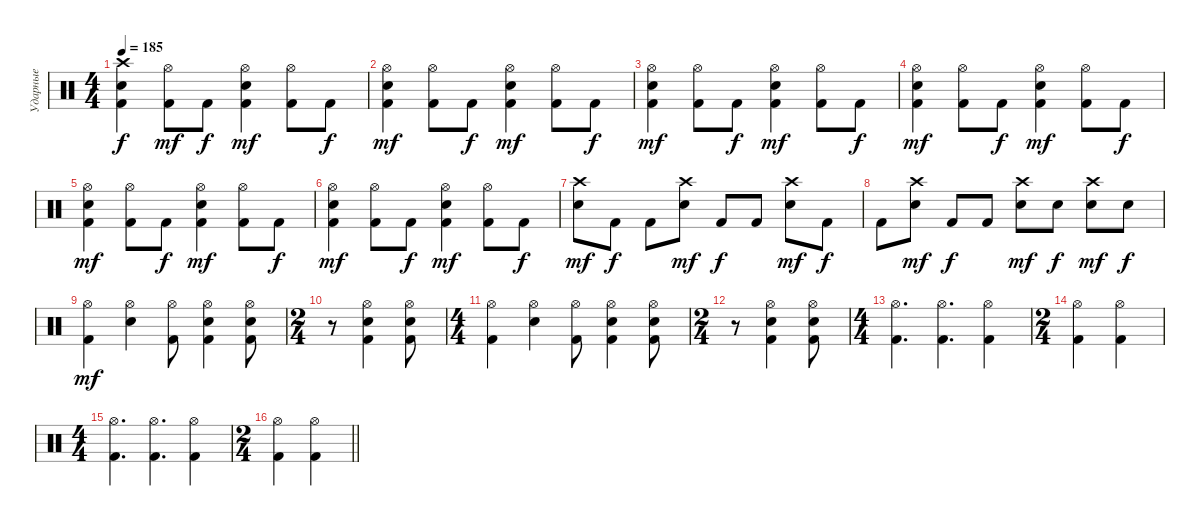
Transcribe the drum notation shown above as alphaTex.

\track ("Ударные" "Ударные") {instrument percussion}
\staff {score}
\articulation defaults
\ts (4 4)
\tempo 185
\clef neutral
\ks c
("Kick (hit) 2" "Electric Snare (hit)" "Crash high (hit)").4{dy f} ("Kick (hit) 2" "Hi-Hat (open)").8{dy mf} "Kick (hit) 2".8{dy f} ("Kick (hit) 2" "Electric Snare (hit)" "Hi-Hat (open)").4{dy mf} ("Kick (hit) 2" "Hi-Hat (open)").8 "Kick (hit) 2".8{dy f} |
("Kick (hit) 2" "Electric Snare (hit)" "Hi-Hat (open)").4{dy mf} ("Kick (hit) 2" "Hi-Hat (open)").8 "Kick (hit) 2".8{dy f} ("Kick (hit) 2" "Electric Snare (hit)" "Hi-Hat (open)").4{dy mf} ("Kick (hit) 2" "Hi-Hat (open)").8 "Kick (hit) 2".8{dy f} |
("Kick (hit) 2" "Electric Snare (hit)" "Hi-Hat (open)").4{dy mf} ("Kick (hit) 2" "Hi-Hat (open)").8 "Kick (hit) 2".8{dy f} ("Kick (hit) 2" "Electric Snare (hit)" "Hi-Hat (open)").4{dy mf} ("Kick (hit) 2" "Hi-Hat (open)").8 "Kick (hit) 2".8{dy f} |
("Kick (hit) 2" "Electric Snare (hit)" "Hi-Hat (open)").4{dy mf} ("Kick (hit) 2" "Hi-Hat (open)").8 "Kick (hit) 2".8{dy f} ("Kick (hit) 2" "Electric Snare (hit)" "Hi-Hat (open)").4{dy mf} ("Kick (hit) 2" "Hi-Hat (open)").8 "Kick (hit) 2".8{dy f} |
("Kick (hit) 2" "Electric Snare (hit)" "Hi-Hat (open)").4{dy mf} ("Kick (hit) 2" "Hi-Hat (open)").8 "Kick (hit) 2".8{dy f} ("Kick (hit) 2" "Electric Snare (hit)" "Hi-Hat (open)").4{dy mf} ("Kick (hit) 2" "Hi-Hat (open)").8 "Kick (hit) 2".8{dy f} |
("Kick (hit) 2" "Electric Snare (hit)" "Hi-Hat (open)").4{dy mf} ("Kick (hit) 2" "Hi-Hat (open)").8 "Kick (hit) 2".8{dy f} ("Kick (hit) 2" "Electric Snare (hit)" "Hi-Hat (open)").4{dy mf} ("Kick (hit) 2" "Hi-Hat (open)").8 "Kick (hit) 2".8{dy f} |
("Electric Snare (hit)" "Crash high (hit)").8{dy mf} "Kick (hit) 2".8{dy f} "Kick (hit) 2".8 ("Electric Snare (hit)" "Crash high (hit)").8{dy mf} "Kick (hit) 2".8{dy f} "Kick (hit) 2".8 ("Electric Snare (hit)" "Crash high (hit)").8{dy mf} "Kick (hit) 2".8{dy f} |
"Kick (hit) 2".8 ("Electric Snare (hit)" "Crash high (hit)").8{dy mf} "Kick (hit) 2".8{dy f} "Kick (hit) 2".8 ("Electric Snare (hit)" "Crash high (hit)").8{dy mf} "Electric Snare (hit)".8{dy f} ("Electric Snare (hit)" "Crash high (hit)").8{dy mf} "Electric Snare (hit)".8{dy f} |
("Kick (hit) 2" "Hi-Hat (open)").4{dy mf} ("Electric Snare (hit)" "Hi-Hat (open)").4 ("Kick (hit) 2" "Hi-Hat (open)").8 ("Kick (hit) 2" "Electric Snare (hit)" "Hi-Hat (open)").4 ("Kick (hit) 2" "Electric Snare (hit)" "Hi-Hat (open)").8 |
\ts (2 4)
r.8 ("Kick (hit) 2" "Electric Snare (hit)" "Hi-Hat (open)").4 ("Kick (hit) 2" "Electric Snare (hit)" "Hi-Hat (open)").8 |
\ts (4 4)
("Kick (hit) 2" "Hi-Hat (open)").4 ("Electric Snare (hit)" "Hi-Hat (open)").4 ("Kick (hit) 2" "Hi-Hat (open)").8 ("Kick (hit) 2" "Electric Snare (hit)" "Hi-Hat (open)").4 ("Kick (hit) 2" "Electric Snare (hit)" "Hi-Hat (open)").8 |
\ts (2 4)
r.8 ("Kick (hit) 2" "Electric Snare (hit)" "Hi-Hat (open)").4 ("Kick (hit) 2" "Electric Snare (hit)" "Hi-Hat (open)").8 |
\ts (4 4)
("Kick (hit) 2" "Hi-Hat (open)").4{d} ("Kick (hit) 2" "Hi-Hat (open)").4{d} ("Kick (hit) 2" "Hi-Hat (open)").4 |
\ts (2 4)
("Kick (hit) 2" "Hi-Hat (open)").4 ("Kick (hit) 2" "Hi-Hat (open)").4 |
\ts (4 4)
("Kick (hit) 2" "Hi-Hat (open)").4{d} ("Kick (hit) 2" "Hi-Hat (open)").4{d} ("Kick (hit) 2" "Hi-Hat (open)").4 |
\ts (2 4)
\barLineRight lightlight
("Kick (hit) 2" "Hi-Hat (open)").4 ("Kick (hit) 2" "Hi-Hat (open)").4
